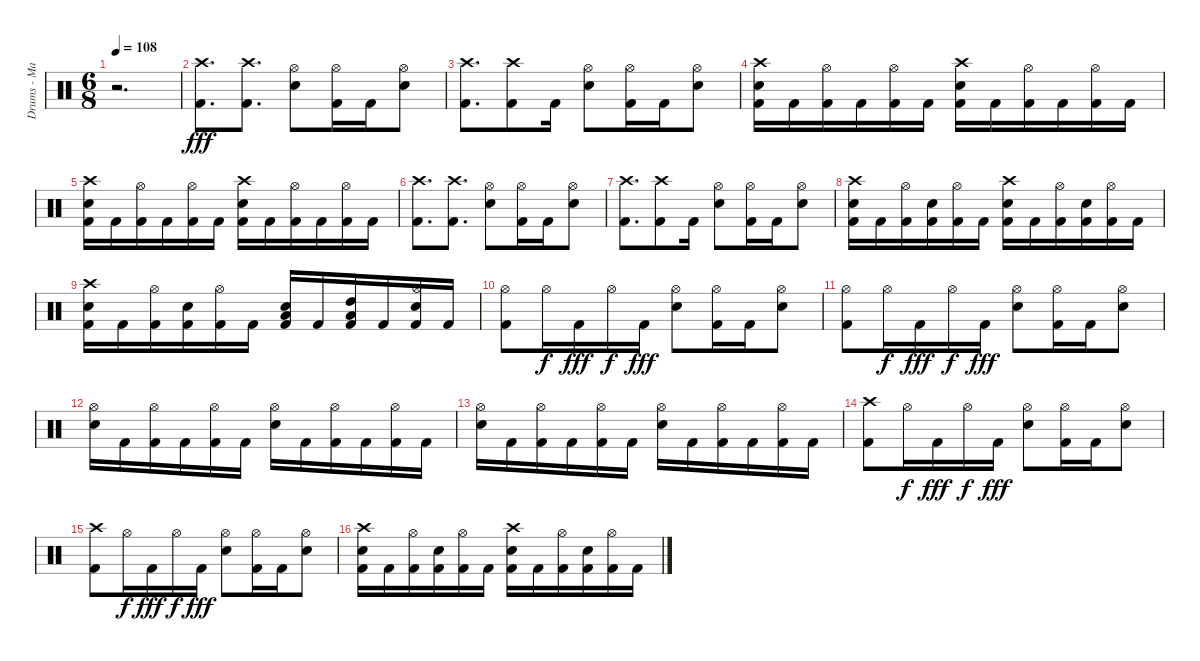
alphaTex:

\track ("Drums - Matt Traynor" "Drums - Ma") {instrument percussion}
\staff {score}
\articulation defaults
\ts (6 8)
\tempo 108
\clef neutral
\ks c
r.2{d dy fff} |
("Crash high (hit)" "Kick (hit) 2").8{d} ("Crash high (hit)" "Kick (hit) 2").8{d} ("Hi-Hat (open)" "Snare (hit) 2").8 ("Hi-Hat (open)" "Kick (hit) 2").16 "Kick (hit) 2".16 ("Hi-Hat (open)" "Snare (hit) 2").8 |
("Crash high (hit)" "Kick (hit) 2").8{d} ("Crash high (hit)" "Kick (hit) 2").8 "Kick (hit) 2".16 ("Hi-Hat (open)" "Snare (hit) 2").8 ("Hi-Hat (open)" "Kick (hit) 2").16 "Kick (hit) 2".16 ("Hi-Hat (open)" "Snare (hit) 2").8 |
("Crash high (hit)" "Snare (hit) 2" "Kick (hit) 2").16 "Kick (hit) 2".16 ("Hi-Hat (open)" "Kick (hit) 2").16 "Kick (hit) 2".16 ("Hi-Hat (open)" "Kick (hit) 2").16 "Kick (hit) 2".16 ("Crash high (hit)" "Snare (hit) 2" "Kick (hit) 2").16 "Kick (hit) 2".16 ("Hi-Hat (open)" "Kick (hit) 2").16 "Kick (hit) 2".16 ("Hi-Hat (open)" "Kick (hit) 2").16 "Kick (hit) 2".16 |
("Crash high (hit)" "Snare (hit) 2" "Kick (hit) 2").16 "Kick (hit) 2".16 ("Hi-Hat (open)" "Kick (hit) 2").16 "Kick (hit) 2".16 ("Hi-Hat (open)" "Kick (hit) 2").16 "Kick (hit) 2".16 ("Crash high (hit)" "Snare (hit) 2" "Kick (hit) 2").16 "Kick (hit) 2".16 ("Hi-Hat (open)" "Kick (hit) 2").16 "Kick (hit) 2".16 ("Hi-Hat (open)" "Kick (hit) 2").16 "Kick (hit) 2".16 |
("Crash high (hit)" "Kick (hit) 2").8{d} ("Crash high (hit)" "Kick (hit) 2").8{d} ("Hi-Hat (open)" "Snare (hit) 2").8 ("Hi-Hat (open)" "Kick (hit) 2").16 "Kick (hit) 2".16 ("Hi-Hat (open)" "Snare (hit) 2").8 |
("Crash high (hit)" "Kick (hit) 2").8{d} ("Crash high (hit)" "Kick (hit) 2").8 "Kick (hit) 2".16 ("Hi-Hat (open)" "Snare (hit) 2").8 ("Hi-Hat (open)" "Kick (hit) 2").16 "Kick (hit) 2".16 ("Hi-Hat (open)" "Snare (hit) 2").8 |
("Crash high (hit)" "Snare (hit) 2" "Kick (hit) 2").16 "Kick (hit) 2".16 ("Hi-Hat (open)" "Kick (hit) 2").16 ("Snare (hit) 2" "Kick (hit) 2").16 ("Hi-Hat (open)" "Kick (hit) 2").16 "Kick (hit) 2".16 ("Crash high (hit)" "Snare (hit) 2" "Kick (hit) 2").16 "Kick (hit) 2".16 ("Hi-Hat (open)" "Kick (hit) 2").16 ("Snare (hit) 2" "Kick (hit) 2").16 ("Hi-Hat (open)" "Kick (hit) 2").16 "Kick (hit) 2".16 |
("Crash high (hit)" "Snare (hit) 2" "Kick (hit) 2").16 "Kick (hit) 2".16 ("Hi-Hat (open)" "Kick (hit) 2").16 ("Snare (hit) 2" "Kick (hit) 2").16 ("Hi-Hat (open)" "Kick (hit) 2").16 "Kick (hit) 2".16 ("Snare (hit) 2" "Low Tom (hit)" "Kick (hit) 2").16 "Kick (hit) 2".16 ("High Tom (hit)" "Low Tom (hit)" "Kick (hit) 2").16 "Kick (hit) 2".16 ("Hi-Hat (open)" "Snare (hit) 2" "Kick (hit) 2").16 "Kick (hit) 2".16 |
("Hi-Hat (open)" "Kick (hit) 2").8 "Hi-Hat (open)".16{dy f} "Kick (hit) 2".16{dy fff} "Hi-Hat (open)".16{dy f} "Kick (hit) 2".16{dy fff} ("Hi-Hat (open)" "Snare (hit) 2").8 ("Hi-Hat (open)" "Kick (hit) 2").16 "Kick (hit) 2".16 ("Hi-Hat (open)" "Snare (hit) 2").8 |
("Hi-Hat (open)" "Kick (hit) 2").8 "Hi-Hat (open)".16{dy f} "Kick (hit) 2".16{dy fff} "Hi-Hat (open)".16{dy f} "Kick (hit) 2".16{dy fff} ("Hi-Hat (open)" "Snare (hit) 2").8 ("Hi-Hat (open)" "Kick (hit) 2").16 "Kick (hit) 2".16 ("Hi-Hat (open)" "Snare (hit) 2").8 |
("Hi-Hat (open)" "Snare (hit) 2").16 "Kick (hit) 2".16 ("Hi-Hat (open)" "Kick (hit) 2").16 "Kick (hit) 2".16 ("Hi-Hat (open)" "Kick (hit) 2").16 "Kick (hit) 2".16 ("Hi-Hat (open)" "Snare (hit) 2").16 "Kick (hit) 2".16 ("Hi-Hat (open)" "Kick (hit) 2").16 "Kick (hit) 2".16 ("Hi-Hat (open)" "Kick (hit) 2").16 "Kick (hit) 2".16 |
("Hi-Hat (open)" "Snare (hit) 2").16 "Kick (hit) 2".16 ("Hi-Hat (open)" "Kick (hit) 2").16 "Kick (hit) 2".16 ("Hi-Hat (open)" "Kick (hit) 2").16 "Kick (hit) 2".16 ("Hi-Hat (open)" "Snare (hit) 2").16 "Kick (hit) 2".16 ("Hi-Hat (open)" "Kick (hit) 2").16 "Kick (hit) 2".16 ("Hi-Hat (open)" "Kick (hit) 2").16 "Kick (hit) 2".16 |
("Crash high (hit)" "Kick (hit) 2").8 "Hi-Hat (open)".16{dy f} "Kick (hit) 2".16{dy fff} "Hi-Hat (open)".16{dy f} "Kick (hit) 2".16{dy fff} ("Hi-Hat (open)" "Snare (hit) 2").8 ("Hi-Hat (open)" "Kick (hit) 2").16 "Kick (hit) 2".16 ("Hi-Hat (open)" "Snare (hit) 2").8 |
("Crash high (hit)" "Kick (hit) 2").8 "Hi-Hat (open)".16{dy f} "Kick (hit) 2".16{dy fff} "Hi-Hat (open)".16{dy f} "Kick (hit) 2".16{dy fff} ("Hi-Hat (open)" "Snare (hit) 2").8 ("Hi-Hat (open)" "Kick (hit) 2").16 "Kick (hit) 2".16 ("Hi-Hat (open)" "Snare (hit) 2").8 |
("Crash high (hit)" "Snare (hit) 2" "Kick (hit) 2").16 "Kick (hit) 2".16 ("Hi-Hat (open)" "Kick (hit) 2").16 ("Snare (hit) 2" "Kick (hit) 2").16 ("Hi-Hat (open)" "Kick (hit) 2").16 "Kick (hit) 2".16 ("Crash high (hit)" "Snare (hit) 2" "Kick (hit) 2").16 "Kick (hit) 2".16 ("Hi-Hat (open)" "Kick (hit) 2").16 ("Snare (hit) 2" "Kick (hit) 2").16 ("Hi-Hat (open)" "Kick (hit) 2").16 "Kick (hit) 2".16
